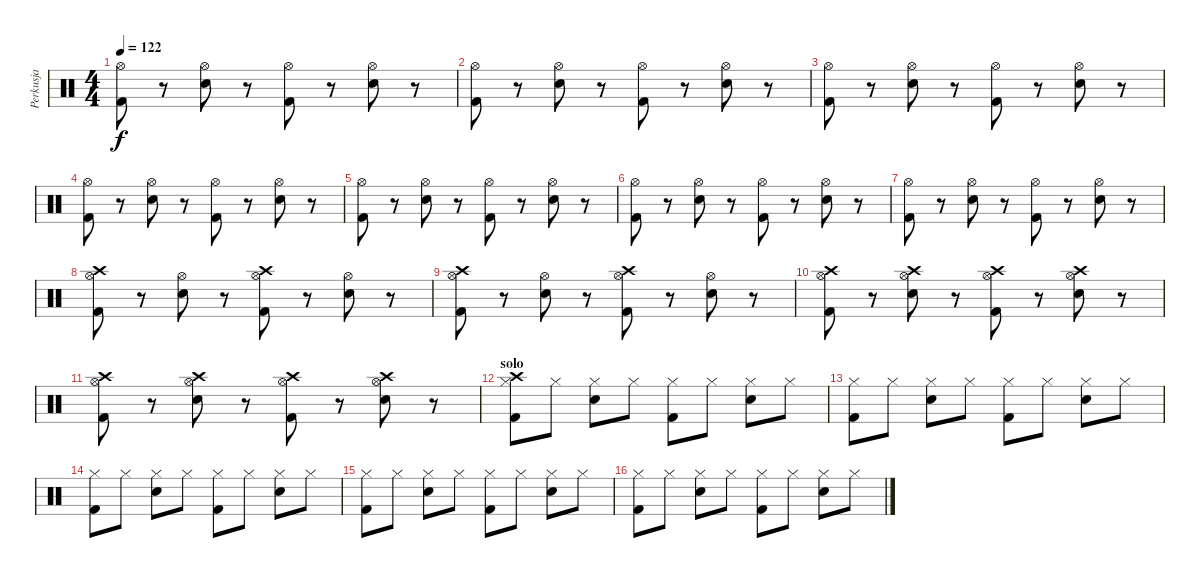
\track ("Perkusja" "Perkusja") {instrument percussion}
\staff {score}
\articulation defaults
\ts (4 4)
\tempo 122
\clef neutral
\ks c
("Kick (hit) 2" "Hi-Hat (open)").8{dy f} r.8 ("Snare (hit) 2" "Hi-Hat (open)").8 r.8 ("Kick (hit) 2" "Hi-Hat (open)").8 r.8 ("Snare (hit) 2" "Hi-Hat (open)").8 r.8 |
("Kick (hit) 2" "Hi-Hat (open)").8 r.8 ("Snare (hit) 2" "Hi-Hat (open)").8 r.8 ("Kick (hit) 2" "Hi-Hat (open)").8 r.8 ("Snare (hit) 2" "Hi-Hat (open)").8 r.8 |
("Kick (hit) 2" "Hi-Hat (open)").8 r.8 ("Snare (hit) 2" "Hi-Hat (open)").8 r.8 ("Kick (hit) 2" "Hi-Hat (open)").8 r.8 ("Snare (hit) 2" "Hi-Hat (open)").8 r.8 |
("Kick (hit) 2" "Hi-Hat (open)").8 r.8 ("Snare (hit) 2" "Hi-Hat (open)").8 r.8 ("Kick (hit) 2" "Hi-Hat (open)").8 r.8 ("Snare (hit) 2" "Hi-Hat (open)").8 r.8 |
("Kick (hit) 2" "Hi-Hat (open)").8 r.8 ("Snare (hit) 2" "Hi-Hat (open)").8 r.8 ("Kick (hit) 2" "Hi-Hat (open)").8 r.8 ("Snare (hit) 2" "Hi-Hat (open)").8 r.8 |
("Kick (hit) 2" "Hi-Hat (open)").8 r.8 ("Snare (hit) 2" "Hi-Hat (open)").8 r.8 ("Kick (hit) 2" "Hi-Hat (open)").8 r.8 ("Snare (hit) 2" "Hi-Hat (open)").8 r.8 |
("Kick (hit) 2" "Hi-Hat (open)").8 r.8 ("Snare (hit) 2" "Hi-Hat (open)").8 r.8 ("Kick (hit) 2" "Hi-Hat (open)").8 r.8 ("Snare (hit) 2" "Hi-Hat (open)").8 r.8 |
("Kick (hit) 2" "Hi-Hat (open)" "Crash high (hit)").8 r.8 ("Snare (hit) 2" "Hi-Hat (open)").8 r.8 ("Kick (hit) 2" "Hi-Hat (open)" "Crash high (hit)").8 r.8 ("Snare (hit) 2" "Hi-Hat (open)").8 r.8 |
("Kick (hit) 2" "Hi-Hat (open)" "Crash high (hit)").8 r.8 ("Snare (hit) 2" "Hi-Hat (open)").8 r.8 ("Kick (hit) 2" "Hi-Hat (open)" "Crash high (hit)").8 r.8 ("Snare (hit) 2" "Hi-Hat (open)").8 r.8 |
("Kick (hit) 2" "Hi-Hat (open)" "Crash high (hit)").8 r.8 ("Snare (hit) 2" "Hi-Hat (open)" "Crash high (hit)").8 r.8 ("Kick (hit) 2" "Hi-Hat (open)" "Crash high (hit)").8 r.8 ("Snare (hit) 2" "Hi-Hat (open)" "Crash high (hit)").8 r.8 |
("Kick (hit) 2" "Hi-Hat (open)" "Crash high (hit)").8 r.8 ("Snare (hit) 2" "Hi-Hat (open)" "Crash high (hit)").8 r.8 ("Kick (hit) 2" "Hi-Hat (open)" "Crash high (hit)").8 r.8 ("Snare (hit) 2" "Hi-Hat (open)" "Crash high (hit)").8 r.8 |
\section ("" "solo")
("Kick (hit) 2" "Hi-Hat (closed)" "Crash high (hit)").8 "Hi-Hat (closed)".8 ("Snare (hit) 2" "Hi-Hat (closed)").8 "Hi-Hat (closed)".8 ("Kick (hit) 2" "Hi-Hat (closed)").8 "Hi-Hat (closed)".8 ("Snare (hit) 2" "Hi-Hat (closed)").8 "Hi-Hat (closed)".8 |
("Kick (hit) 2" "Hi-Hat (closed)").8 "Hi-Hat (closed)".8 ("Snare (hit) 2" "Hi-Hat (closed)").8 "Hi-Hat (closed)".8 ("Kick (hit) 2" "Hi-Hat (closed)").8 "Hi-Hat (closed)".8 ("Snare (hit) 2" "Hi-Hat (closed)").8 "Hi-Hat (closed)".8 |
("Kick (hit) 2" "Hi-Hat (closed)").8 "Hi-Hat (closed)".8 ("Snare (hit) 2" "Hi-Hat (closed)").8 "Hi-Hat (closed)".8 ("Kick (hit) 2" "Hi-Hat (closed)").8 "Hi-Hat (closed)".8 ("Snare (hit) 2" "Hi-Hat (closed)").8 "Hi-Hat (closed)".8 |
("Kick (hit) 2" "Hi-Hat (closed)").8 "Hi-Hat (closed)".8 ("Snare (hit) 2" "Hi-Hat (closed)").8 "Hi-Hat (closed)".8 ("Kick (hit) 2" "Hi-Hat (closed)").8 "Hi-Hat (closed)".8 ("Snare (hit) 2" "Hi-Hat (closed)").8 "Hi-Hat (closed)".8 |
("Kick (hit) 2" "Hi-Hat (closed)").8 "Hi-Hat (closed)".8 ("Snare (hit) 2" "Hi-Hat (closed)").8 "Hi-Hat (closed)".8 ("Kick (hit) 2" "Hi-Hat (closed)").8 "Hi-Hat (closed)".8 ("Snare (hit) 2" "Hi-Hat (closed)").8 "Hi-Hat (closed)".8
